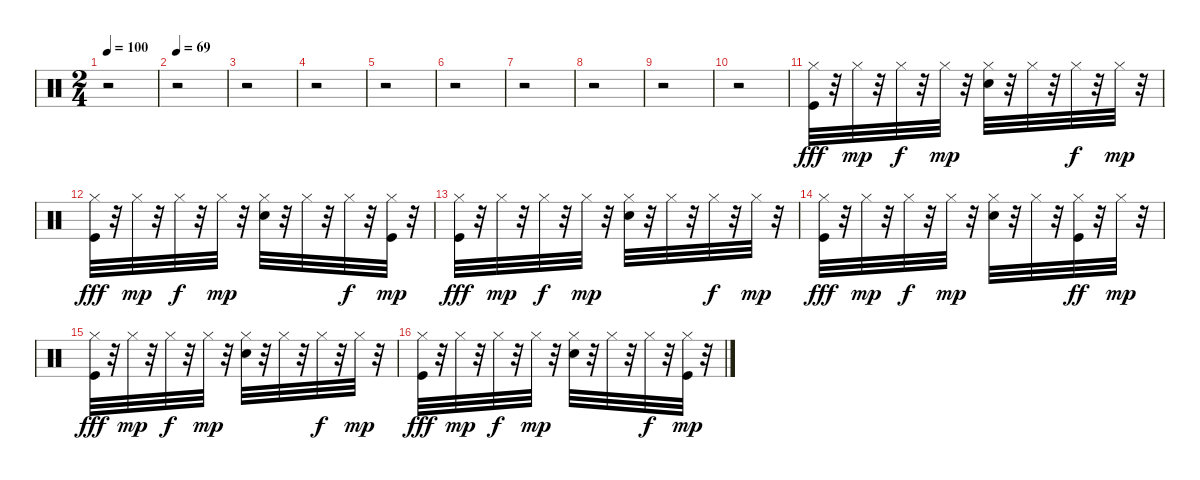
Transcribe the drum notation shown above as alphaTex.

\track "" {instrument percussion}
\staff {score}
\articulation defaults
\ts (2 4)
\tempo 100
\clef neutral
\ks c
r.2{dy fff} |
\tempo 69
r.2 |
r.2 |
r.2 |
r.2 |
r.2 |
r.2 |
r.2 |
r.2 |
r.2 |
("Hi-Hat (closed)" "Kick (hit)").32 r.32 "Hi-Hat (closed)".32{dy mp} r.32 "Hi-Hat (closed)".32{dy f} r.32 "Hi-Hat (closed)".32{dy mp} r.32 ("Metronome (bell)" "Hi-Hat (closed)").32 r.32 "Hi-Hat (closed)".32 r.32 "Hi-Hat (closed)".32{dy f} r.32 "Hi-Hat (closed)".32{dy mp} r.32 |
("Kick (hit)" "Hi-Hat (closed)").32{dy fff} r.32 "Hi-Hat (closed)".32{dy mp} r.32 "Hi-Hat (closed)".32{dy f} r.32 "Hi-Hat (closed)".32{dy mp} r.32 ("Metronome (bell)" "Hi-Hat (closed)").32 r.32 "Hi-Hat (closed)".32 r.32 "Hi-Hat (closed)".32{dy f} r.32 ("Kick (hit)" "Hi-Hat (closed)").32{dy mp} r.32 |
("Hi-Hat (closed)" "Kick (hit)").32{dy fff} r.32 "Hi-Hat (closed)".32{dy mp} r.32 "Hi-Hat (closed)".32{dy f} r.32 "Hi-Hat (closed)".32{dy mp} r.32 ("Metronome (bell)" "Hi-Hat (closed)").32 r.32 "Hi-Hat (closed)".32 r.32 "Hi-Hat (closed)".32{dy f} r.32 "Hi-Hat (closed)".32{dy mp} r.32 |
("Kick (hit)" "Hi-Hat (closed)").32{dy fff} r.32 "Hi-Hat (closed)".32{dy mp} r.32 "Hi-Hat (closed)".32{dy f} r.32 "Hi-Hat (closed)".32{dy mp} r.32 ("Metronome (bell)" "Hi-Hat (closed)").32 r.32 "Hi-Hat (closed)".32 r.32 ("Hi-Hat (closed)" "Kick (hit)").32{dy ff} r.32 "Hi-Hat (closed)".32{dy mp} r.32 |
("Hi-Hat (closed)" "Kick (hit)").32{dy fff} r.32 "Hi-Hat (closed)".32{dy mp} r.32 "Hi-Hat (closed)".32{dy f} r.32 "Hi-Hat (closed)".32{dy mp} r.32 ("Metronome (bell)" "Hi-Hat (closed)").32 r.32 "Hi-Hat (closed)".32 r.32 "Hi-Hat (closed)".32{dy f} r.32 "Hi-Hat (closed)".32{dy mp} r.32 |
("Kick (hit)" "Hi-Hat (closed)").32{dy fff} r.32 "Hi-Hat (closed)".32{dy mp} r.32 "Hi-Hat (closed)".32{dy f} r.32 "Hi-Hat (closed)".32{dy mp} r.32 ("Metronome (bell)" "Hi-Hat (closed)").32 r.32 "Hi-Hat (closed)".32 r.32 "Hi-Hat (closed)".32{dy f} r.32 ("Kick (hit)" "Hi-Hat (closed)").32{dy mp} r.32
